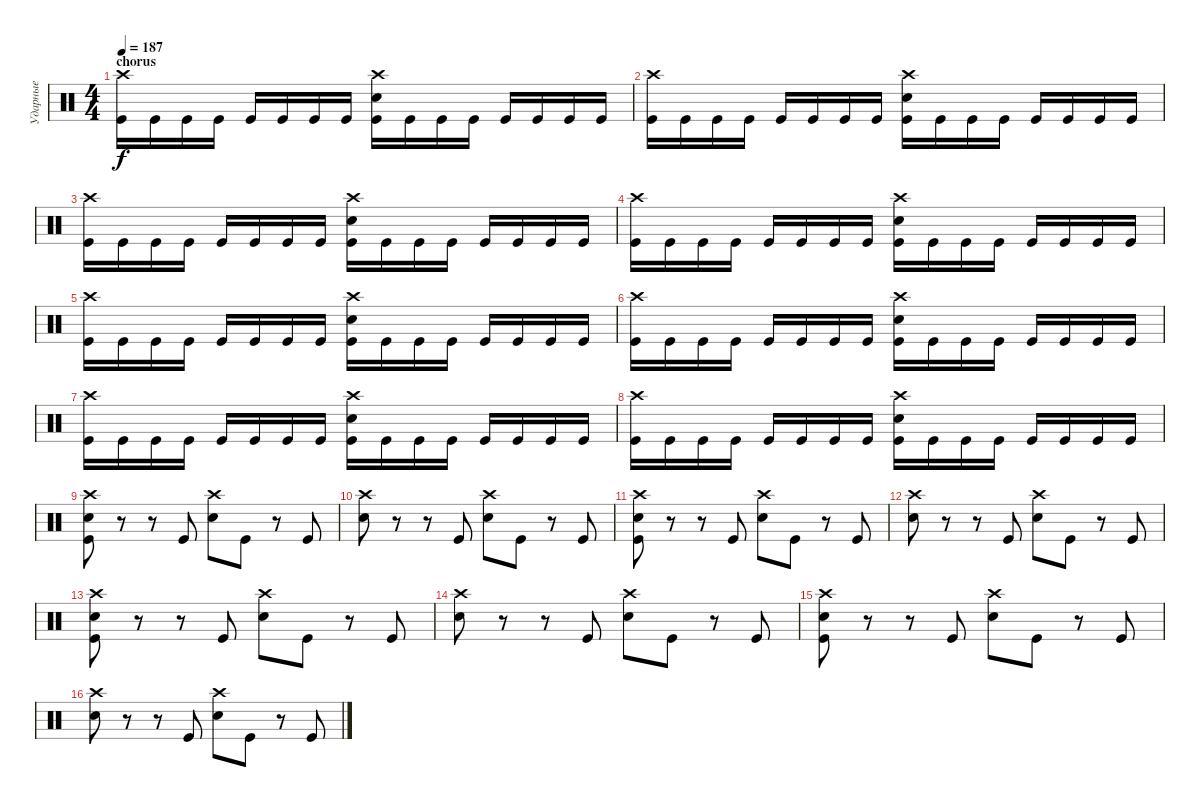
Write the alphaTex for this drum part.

\track ("Ударные" "Ударные") {instrument percussion}
\staff {score}
\articulation defaults
\ts (4 4)
\section ("" "chorus")
\tempo 187
\clef neutral
\ks c
("Crash high (hit)" "Kick (hit)").16{dy f} "Kick (hit)".16 "Kick (hit)".16 "Kick (hit)".16 "Kick (hit)".16 "Kick (hit)".16 "Kick (hit)".16 "Kick (hit)".16 ("Crash high (hit)" "Electric Snare (hit)" "Kick (hit)").16 "Kick (hit)".16 "Kick (hit)".16 "Kick (hit)".16 "Kick (hit)".16 "Kick (hit)".16 "Kick (hit)".16 "Kick (hit)".16 |
("Crash high (hit)" "Kick (hit)").16 "Kick (hit)".16 "Kick (hit)".16 "Kick (hit)".16 "Kick (hit)".16 "Kick (hit)".16 "Kick (hit)".16 "Kick (hit)".16 ("Crash high (hit)" "Electric Snare (hit)" "Kick (hit)").16 "Kick (hit)".16 "Kick (hit)".16 "Kick (hit)".16 "Kick (hit)".16 "Kick (hit)".16 "Kick (hit)".16 "Kick (hit)".16 |
("Crash high (hit)" "Kick (hit)").16 "Kick (hit)".16 "Kick (hit)".16 "Kick (hit)".16 "Kick (hit)".16 "Kick (hit)".16 "Kick (hit)".16 "Kick (hit)".16 ("Crash high (hit)" "Electric Snare (hit)" "Kick (hit)").16 "Kick (hit)".16 "Kick (hit)".16 "Kick (hit)".16 "Kick (hit)".16 "Kick (hit)".16 "Kick (hit)".16 "Kick (hit)".16 |
("Crash high (hit)" "Kick (hit)").16 "Kick (hit)".16 "Kick (hit)".16 "Kick (hit)".16 "Kick (hit)".16 "Kick (hit)".16 "Kick (hit)".16 "Kick (hit)".16 ("Crash high (hit)" "Electric Snare (hit)" "Kick (hit)").16 "Kick (hit)".16 "Kick (hit)".16 "Kick (hit)".16 "Kick (hit)".16 "Kick (hit)".16 "Kick (hit)".16 "Kick (hit)".16 |
("Crash high (hit)" "Kick (hit)").16 "Kick (hit)".16 "Kick (hit)".16 "Kick (hit)".16 "Kick (hit)".16 "Kick (hit)".16 "Kick (hit)".16 "Kick (hit)".16 ("Crash high (hit)" "Electric Snare (hit)" "Kick (hit)").16 "Kick (hit)".16 "Kick (hit)".16 "Kick (hit)".16 "Kick (hit)".16 "Kick (hit)".16 "Kick (hit)".16 "Kick (hit)".16 |
("Crash high (hit)" "Kick (hit)").16 "Kick (hit)".16 "Kick (hit)".16 "Kick (hit)".16 "Kick (hit)".16 "Kick (hit)".16 "Kick (hit)".16 "Kick (hit)".16 ("Crash high (hit)" "Electric Snare (hit)" "Kick (hit)").16 "Kick (hit)".16 "Kick (hit)".16 "Kick (hit)".16 "Kick (hit)".16 "Kick (hit)".16 "Kick (hit)".16 "Kick (hit)".16 |
("Crash high (hit)" "Kick (hit)").16 "Kick (hit)".16 "Kick (hit)".16 "Kick (hit)".16 "Kick (hit)".16 "Kick (hit)".16 "Kick (hit)".16 "Kick (hit)".16 ("Crash high (hit)" "Electric Snare (hit)" "Kick (hit)").16 "Kick (hit)".16 "Kick (hit)".16 "Kick (hit)".16 "Kick (hit)".16 "Kick (hit)".16 "Kick (hit)".16 "Kick (hit)".16 |
("Crash high (hit)" "Kick (hit)").16 "Kick (hit)".16 "Kick (hit)".16 "Kick (hit)".16 "Kick (hit)".16 "Kick (hit)".16 "Kick (hit)".16 "Kick (hit)".16 ("Crash high (hit)" "Electric Snare (hit)" "Kick (hit)").16 "Kick (hit)".16 "Kick (hit)".16 "Kick (hit)".16 "Kick (hit)".16 "Kick (hit)".16 "Kick (hit)".16 "Kick (hit)".16 |
("Crash high (hit)" "Electric Snare (hit)" "Kick (hit)").8 r.8 r.8 "Kick (hit)".8 ("Crash high (hit)" "Electric Snare (hit)").8 "Kick (hit)".8 r.8 "Kick (hit)".8 |
("Crash high (hit)" "Electric Snare (hit)").8 r.8 r.8 "Kick (hit)".8 ("Crash high (hit)" "Electric Snare (hit)").8 "Kick (hit)".8 r.8 "Kick (hit)".8 |
("Crash high (hit)" "Electric Snare (hit)" "Kick (hit)").8 r.8 r.8 "Kick (hit)".8 ("Crash high (hit)" "Electric Snare (hit)").8 "Kick (hit)".8 r.8 "Kick (hit)".8 |
("Crash high (hit)" "Electric Snare (hit)").8 r.8 r.8 "Kick (hit)".8 ("Crash high (hit)" "Electric Snare (hit)").8 "Kick (hit)".8 r.8 "Kick (hit)".8 |
("Crash high (hit)" "Electric Snare (hit)" "Kick (hit)").8 r.8 r.8 "Kick (hit)".8 ("Crash high (hit)" "Electric Snare (hit)").8 "Kick (hit)".8 r.8 "Kick (hit)".8 |
("Crash high (hit)" "Electric Snare (hit)").8 r.8 r.8 "Kick (hit)".8 ("Crash high (hit)" "Electric Snare (hit)").8 "Kick (hit)".8 r.8 "Kick (hit)".8 |
("Crash high (hit)" "Electric Snare (hit)" "Kick (hit)").8 r.8 r.8 "Kick (hit)".8 ("Crash high (hit)" "Electric Snare (hit)").8 "Kick (hit)".8 r.8 "Kick (hit)".8 |
("Crash high (hit)" "Electric Snare (hit)").8 r.8 r.8 "Kick (hit)".8 ("Crash high (hit)" "Electric Snare (hit)").8 "Kick (hit)".8 r.8 "Kick (hit)".8
